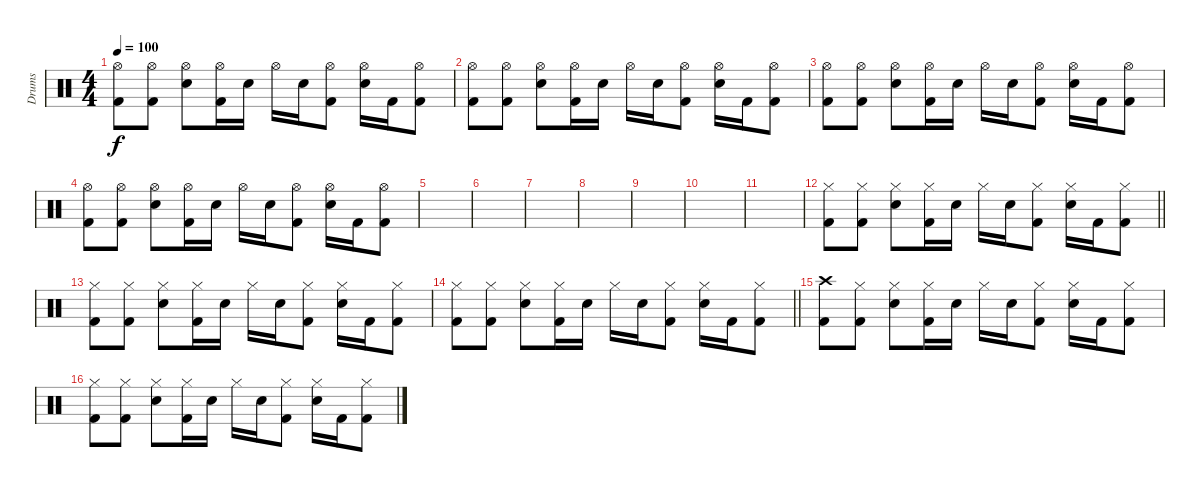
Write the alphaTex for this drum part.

\track ("Drums" "Drums") {instrument percussion}
\staff {score}
\articulation defaults
\ts (4 4)
\tempo 100
\clef neutral
\ks c
("Hi-Hat (open)" "Kick (hit) 2").8{dy f} ("Hi-Hat (open)" "Kick (hit) 2").8 ("Hi-Hat (open)" "Snare (hit) 2").8 ("Hi-Hat (open)" "Kick (hit) 2").16 "Snare (hit) 2".16 "Hi-Hat (open)".16 "Snare (hit) 2".16 ("Hi-Hat (open)" "Kick (hit) 2").8 ("Hi-Hat (open)" "Snare (hit) 2").16 "Kick (hit) 2".16 ("Hi-Hat (open)" "Kick (hit) 2").8 |
("Hi-Hat (open)" "Kick (hit) 2").8 ("Hi-Hat (open)" "Kick (hit) 2").8 ("Hi-Hat (open)" "Snare (hit) 2").8 ("Hi-Hat (open)" "Kick (hit) 2").16 "Snare (hit) 2".16 "Hi-Hat (open)".16 "Snare (hit) 2".16 ("Hi-Hat (open)" "Kick (hit) 2").8 ("Hi-Hat (open)" "Snare (hit) 2").16 "Kick (hit) 2".16 ("Hi-Hat (open)" "Kick (hit) 2").8 |
("Hi-Hat (open)" "Kick (hit) 2").8 ("Hi-Hat (open)" "Kick (hit) 2").8 ("Hi-Hat (open)" "Snare (hit) 2").8 ("Hi-Hat (open)" "Kick (hit) 2").16 "Snare (hit) 2".16 "Hi-Hat (open)".16 "Snare (hit) 2".16 ("Hi-Hat (open)" "Kick (hit) 2").8 ("Hi-Hat (open)" "Snare (hit) 2").16 "Kick (hit) 2".16 ("Hi-Hat (open)" "Kick (hit) 2").8 |
("Hi-Hat (open)" "Kick (hit) 2").8 ("Hi-Hat (open)" "Kick (hit) 2").8 ("Hi-Hat (open)" "Snare (hit) 2").8 ("Hi-Hat (open)" "Kick (hit) 2").16 "Snare (hit) 2".16 "Hi-Hat (open)".16 "Snare (hit) 2".16 ("Hi-Hat (open)" "Kick (hit) 2").8 ("Hi-Hat (open)" "Snare (hit) 2").16 "Kick (hit) 2".16 ("Hi-Hat (open)" "Kick (hit) 2").8 |
|
|
|
|
|
|
|
\barLineRight lightlight
("Hi-Hat (closed)" "Kick (hit) 2").8 ("Hi-Hat (closed)" "Kick (hit) 2").8 ("Hi-Hat (closed)" "Snare (hit) 2").8 ("Hi-Hat (closed)" "Kick (hit) 2").16 "Snare (hit) 2".16 "Hi-Hat (closed)".16 "Snare (hit) 2".16 ("Hi-Hat (closed)" "Kick (hit) 2").8 ("Hi-Hat (closed)" "Snare (hit) 2").16 "Kick (hit) 2".16 ("Hi-Hat (closed)" "Kick (hit) 2").8 |
("Hi-Hat (closed)" "Kick (hit) 2").8 ("Hi-Hat (closed)" "Kick (hit) 2").8 ("Hi-Hat (closed)" "Snare (hit) 2").8 ("Hi-Hat (closed)" "Kick (hit) 2").16 "Snare (hit) 2".16 "Hi-Hat (closed)".16 "Snare (hit) 2".16 ("Hi-Hat (closed)" "Kick (hit) 2").8 ("Hi-Hat (closed)" "Snare (hit) 2").16 "Kick (hit) 2".16 ("Hi-Hat (closed)" "Kick (hit) 2").8 |
\barLineRight lightlight
("Hi-Hat (closed)" "Kick (hit) 2").8 ("Hi-Hat (closed)" "Kick (hit) 2").8 ("Hi-Hat (closed)" "Snare (hit) 2").8 ("Hi-Hat (closed)" "Kick (hit) 2").16 "Snare (hit) 2".16 "Hi-Hat (closed)".16 "Snare (hit) 2".16 ("Hi-Hat (closed)" "Kick (hit) 2").8 ("Hi-Hat (closed)" "Snare (hit) 2").16 "Kick (hit) 2".16 ("Hi-Hat (closed)" "Kick (hit) 2").8 |
("Crash high (hit)" "Kick (hit) 2").8 ("Hi-Hat (closed)" "Kick (hit) 2").8 ("Hi-Hat (closed)" "Snare (hit) 2").8 ("Hi-Hat (closed)" "Kick (hit) 2").16 "Snare (hit) 2".16 "Hi-Hat (closed)".16 "Snare (hit) 2".16 ("Hi-Hat (closed)" "Kick (hit) 2").8 ("Hi-Hat (closed)" "Snare (hit) 2").16 "Kick (hit) 2".16 ("Hi-Hat (closed)" "Kick (hit) 2").8 |
("Hi-Hat (closed)" "Kick (hit) 2").8 ("Hi-Hat (closed)" "Kick (hit) 2").8 ("Hi-Hat (closed)" "Snare (hit) 2").8 ("Hi-Hat (closed)" "Kick (hit) 2").16 "Snare (hit) 2".16 "Hi-Hat (closed)".16 "Snare (hit) 2".16 ("Hi-Hat (closed)" "Kick (hit) 2").8 ("Hi-Hat (closed)" "Snare (hit) 2").16 "Kick (hit) 2".16 ("Hi-Hat (closed)" "Kick (hit) 2").8
